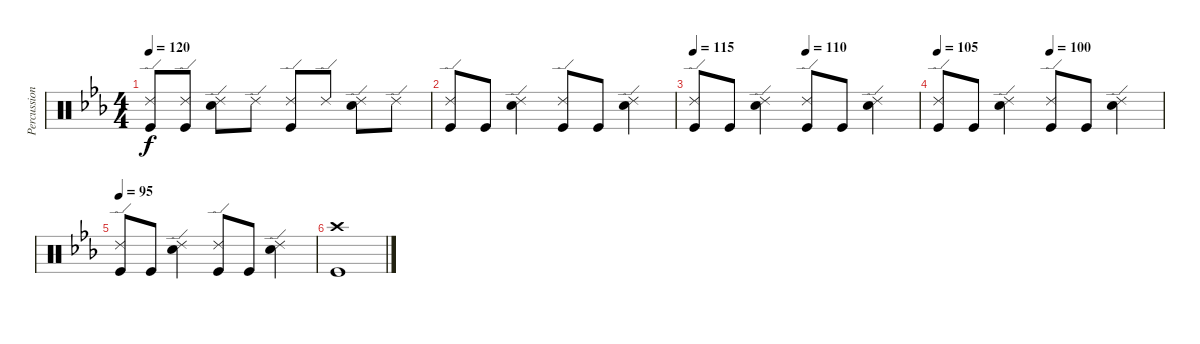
\track ("Percussion" "Percussion") {instrument percussion}
\staff {score}
\articulation defaults
\ts (4 4)
\tempo 120
\clef neutral
\ks eb
("Ride (edge) 2" "Kick (hit)").8{dy f} ("Ride (edge) 2" "Kick (hit)").8 ("Ride (edge) 2" "Snare (hit) 2").8 "Ride (edge) 2".8 ("Ride (edge) 2" "Kick (hit)").8 "Ride (edge) 2".8 ("Ride (edge) 2" "Snare (hit) 2").8 "Ride (edge) 2".8 |
("Ride (edge) 2" "Kick (hit)").8 "Kick (hit)".8 ("Ride (edge) 2" "Snare (hit) 2").4 ("Ride (edge) 2" "Kick (hit)").8 "Kick (hit)".8 ("Ride (edge) 2" "Snare (hit) 2").4 |
\tempo 115
\tempo (110 0.5)
("Ride (edge) 2" "Kick (hit)").8 "Kick (hit)".8 ("Ride (edge) 2" "Snare (hit) 2").4 ("Ride (edge) 2" "Kick (hit)").8 "Kick (hit)".8 ("Ride (edge) 2" "Snare (hit) 2").4 |
\tempo 105
\tempo (100 0.5)
("Ride (edge) 2" "Kick (hit)").8 "Kick (hit)".8 ("Ride (edge) 2" "Snare (hit) 2").4 ("Ride (edge) 2" "Kick (hit)").8 "Kick (hit)".8 ("Ride (edge) 2" "Snare (hit) 2").4 |
\tempo 95
("Ride (edge) 2" "Kick (hit)").8 "Kick (hit)".8 ("Ride (edge) 2" "Snare (hit) 2").4 ("Ride (edge) 2" "Kick (hit)").8 "Kick (hit)".8 ("Ride (edge) 2" "Snare (hit) 2").4 |
("Crash high (hit)" "Kick (hit)").1
